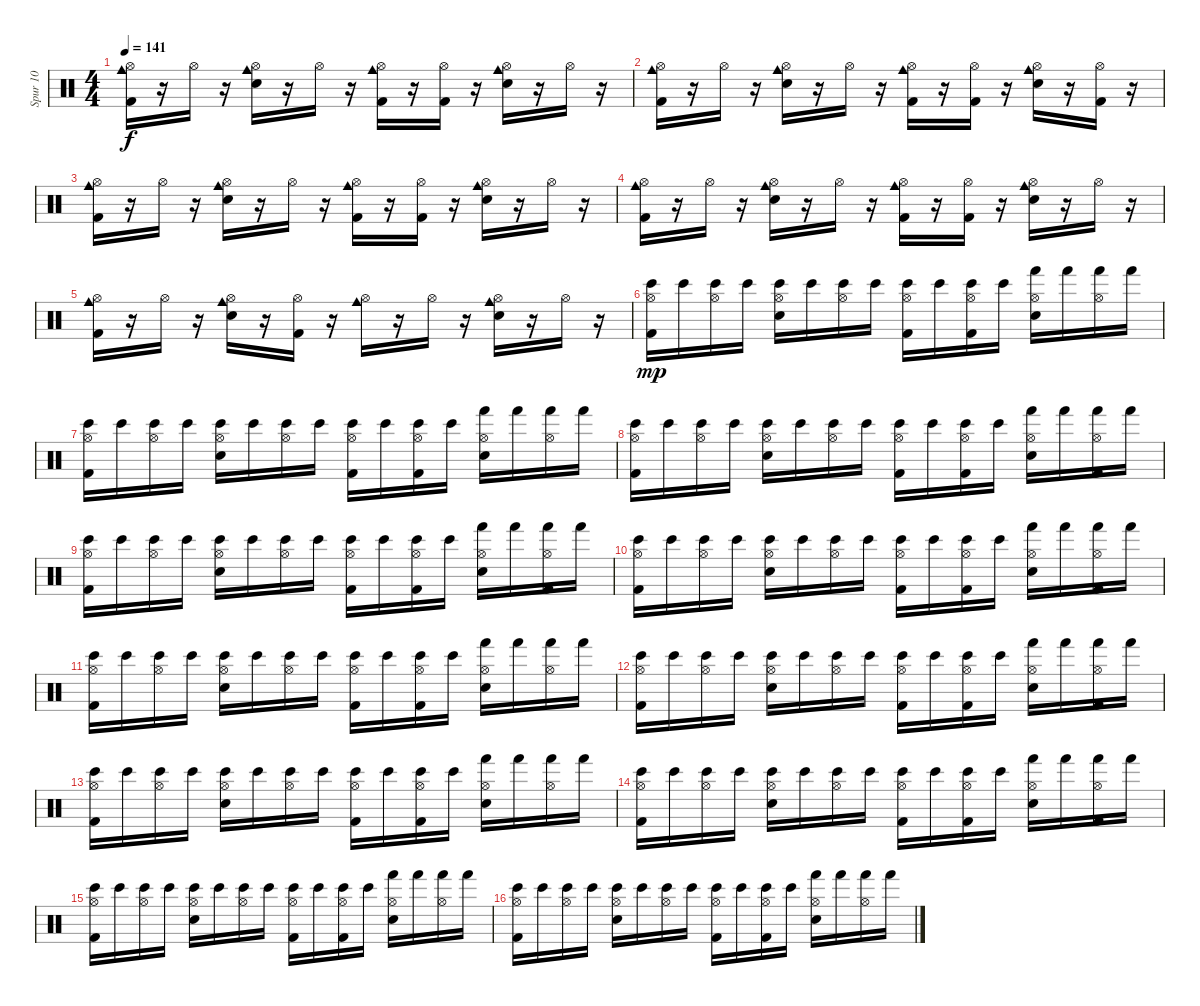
\track ("Spur 10" "Spur 10") {instrument percussion}
\staff {score}
\articulation defaults
\ts (4 4)
\tempo 141
\clef neutral
\ks c
("Cowbell medium (hit)" "Hi-Hat (open)" "Kick (hit) 2").16{dy f} r.16 "Hi-Hat (open)".16 r.16 ("Cowbell medium (hit)" "Hi-Hat (open)" "Snare (hit) 2").16 r.16 "Hi-Hat (open)".16 r.16 ("Cowbell medium (hit)" "Hi-Hat (open)" "Kick (hit) 2").16 r.16 ("Hi-Hat (open)" "Kick (hit) 2").16 r.16 ("Cowbell medium (hit)" "Hi-Hat (open)" "Snare (hit) 2").16 r.16 "Hi-Hat (open)".16 r.16 |
("Cowbell medium (hit)" "Hi-Hat (open)" "Kick (hit) 2").16 r.16 "Hi-Hat (open)".16 r.16 ("Cowbell medium (hit)" "Hi-Hat (open)" "Snare (hit) 2").16 r.16 "Hi-Hat (open)".16 r.16 ("Cowbell medium (hit)" "Hi-Hat (open)" "Kick (hit) 2").16 r.16 ("Hi-Hat (open)" "Kick (hit) 2").16 r.16 ("Cowbell medium (hit)" "Hi-Hat (open)" "Snare (hit) 2").16 r.16 ("Hi-Hat (open)" "Kick (hit) 2").16 r.16 |
("Cowbell medium (hit)" "Hi-Hat (open)" "Kick (hit) 2").16 r.16 "Hi-Hat (open)".16 r.16 ("Cowbell medium (hit)" "Hi-Hat (open)" "Snare (hit) 2").16 r.16 "Hi-Hat (open)".16 r.16 ("Cowbell medium (hit)" "Hi-Hat (open)" "Kick (hit) 2").16 r.16 ("Hi-Hat (open)" "Kick (hit) 2").16 r.16 ("Cowbell medium (hit)" "Hi-Hat (open)" "Snare (hit) 2").16 r.16 "Hi-Hat (open)".16 r.16 |
("Cowbell medium (hit)" "Hi-Hat (open)" "Kick (hit) 2").16 r.16 "Hi-Hat (open)".16 r.16 ("Cowbell medium (hit)" "Hi-Hat (open)" "Snare (hit) 2").16 r.16 "Hi-Hat (open)".16 r.16 ("Cowbell medium (hit)" "Hi-Hat (open)" "Kick (hit) 2").16 r.16 ("Hi-Hat (open)" "Kick (hit) 2").16 r.16 ("Cowbell medium (hit)" "Hi-Hat (open)" "Snare (hit) 2").16 r.16 "Hi-Hat (open)".16 r.16 |
("Cowbell medium (hit)" "Hi-Hat (open)" "Kick (hit) 2").16 r.16 "Hi-Hat (open)".16 r.16 ("Cowbell medium (hit)" "Hi-Hat (open)" "Snare (hit) 2").16 r.16 ("Kick (hit) 2" "Hi-Hat (open)").16 r.16 ("Cowbell medium (hit)" "Hi-Hat (open)").16 r.16 "Hi-Hat (open)".16 r.16 ("Cowbell medium (hit)" "Hi-Hat (open)" "Snare (hit) 2").16 r.16 "Hi-Hat (open)".16 r.16 |
("Bongo High (hit)" "Hi-Hat (open)" "Kick (hit) 2").16{dy mp} "Bongo High (hit)".16 ("Bongo High (hit)" "Hi-Hat (open)").16 "Bongo High (hit)".16 ("Bongo High (hit)" "Hi-Hat (open)" "Snare (hit) 2").16 "Bongo High (hit)".16 ("Bongo High (hit)" "Hi-Hat (open)").16 "Bongo High (hit)".16 ("Bongo High (hit)" "Hi-Hat (open)" "Kick (hit) 2").16 "Bongo High (hit)".16 ("Bongo High (hit)" "Hi-Hat (open)" "Kick (hit) 2").16 "Bongo High (hit)".16 ("Hand (hit)" "Hi-Hat (open)" "Snare (hit) 2").16 "Hand (hit)".16 ("Hand (hit)" "Hi-Hat (open)").16 "Hand (hit)".16 |
("Bongo High (hit)" "Hi-Hat (open)" "Kick (hit) 2").16 "Bongo High (hit)".16 ("Bongo High (hit)" "Hi-Hat (open)").16 "Bongo High (hit)".16 ("Bongo High (hit)" "Hi-Hat (open)" "Snare (hit) 2").16 "Bongo High (hit)".16 ("Bongo High (hit)" "Hi-Hat (open)").16 "Bongo High (hit)".16 ("Bongo High (hit)" "Hi-Hat (open)" "Kick (hit) 2").16 "Bongo High (hit)".16 ("Bongo High (hit)" "Hi-Hat (open)" "Kick (hit) 2").16 "Bongo High (hit)".16 ("Hand (hit)" "Hi-Hat (open)" "Snare (hit) 2").16 "Hand (hit)".16 ("Hand (hit)" "Hi-Hat (open)").16 "Hand (hit)".16 |
("Bongo High (hit)" "Hi-Hat (open)" "Kick (hit) 2").16 "Bongo High (hit)".16 ("Bongo High (hit)" "Hi-Hat (open)").16 "Bongo High (hit)".16 ("Bongo High (hit)" "Hi-Hat (open)" "Snare (hit) 2").16 "Bongo High (hit)".16 ("Bongo High (hit)" "Hi-Hat (open)").16 "Bongo High (hit)".16 ("Bongo High (hit)" "Hi-Hat (open)" "Kick (hit) 2").16 "Bongo High (hit)".16 ("Bongo High (hit)" "Hi-Hat (open)" "Kick (hit) 2").16 "Bongo High (hit)".16 ("Hand (hit)" "Hi-Hat (open)" "Snare (hit) 2").16 "Hand (hit)".16 ("Hand (hit)" "Hi-Hat (open)" "Kick (hit) 2").16 "Hand (hit)".16 |
("Bongo High (hit)" "Hi-Hat (open)" "Kick (hit) 2").16 "Bongo High (hit)".16 ("Bongo High (hit)" "Hi-Hat (open)").16 "Bongo High (hit)".16 ("Bongo High (hit)" "Hi-Hat (open)" "Snare (hit) 2").16 "Bongo High (hit)".16 ("Bongo High (hit)" "Hi-Hat (open)").16 "Bongo High (hit)".16 ("Bongo High (hit)" "Hi-Hat (open)" "Kick (hit) 2").16 "Bongo High (hit)".16 ("Bongo High (hit)" "Hi-Hat (open)" "Kick (hit) 2").16 "Bongo High (hit)".16 ("Hand (hit)" "Hi-Hat (open)" "Snare (hit) 2").16 "Hand (hit)".16 ("Hand (hit)" "Kick (hit) 2" "Hi-Hat (open)").16 "Hand (hit)".16 |
("Bongo High (hit)" "Hi-Hat (open)" "Kick (hit) 2").16 "Bongo High (hit)".16 ("Bongo High (hit)" "Hi-Hat (open)").16 "Bongo High (hit)".16 ("Bongo High (hit)" "Hi-Hat (open)" "Snare (hit) 2").16 "Bongo High (hit)".16 ("Bongo High (hit)" "Hi-Hat (open)").16 "Bongo High (hit)".16 ("Bongo High (hit)" "Hi-Hat (open)" "Kick (hit) 2").16 "Bongo High (hit)".16 ("Bongo High (hit)" "Hi-Hat (open)" "Kick (hit) 2").16 "Bongo High (hit)".16 ("Hand (hit)" "Hi-Hat (open)" "Snare (hit) 2").16 "Hand (hit)".16 ("Hand (hit)" "Hi-Hat (open)" "Kick (hit) 2").16 "Hand (hit)".16 |
("Bongo High (hit)" "Hi-Hat (open)" "Kick (hit) 2").16 "Bongo High (hit)".16 ("Bongo High (hit)" "Hi-Hat (open)").16 "Bongo High (hit)".16 ("Bongo High (hit)" "Hi-Hat (open)" "Snare (hit) 2").16 "Bongo High (hit)".16 ("Bongo High (hit)" "Hi-Hat (open)").16 "Bongo High (hit)".16 ("Bongo High (hit)" "Hi-Hat (open)" "Kick (hit) 2").16 "Bongo High (hit)".16 ("Bongo High (hit)" "Hi-Hat (open)" "Kick (hit) 2").16 "Bongo High (hit)".16 ("Hand (hit)" "Hi-Hat (open)" "Snare (hit) 2").16 "Hand (hit)".16 ("Hand (hit)" "Hi-Hat (open)").16 "Hand (hit)".16 |
("Bongo High (hit)" "Hi-Hat (open)" "Kick (hit) 2").16 "Bongo High (hit)".16 ("Bongo High (hit)" "Hi-Hat (open)").16 "Bongo High (hit)".16 ("Bongo High (hit)" "Hi-Hat (open)" "Snare (hit) 2").16 "Bongo High (hit)".16 ("Bongo High (hit)" "Hi-Hat (open)").16 "Bongo High (hit)".16 ("Bongo High (hit)" "Hi-Hat (open)" "Kick (hit) 2").16 "Bongo High (hit)".16 ("Bongo High (hit)" "Hi-Hat (open)" "Kick (hit) 2").16 "Bongo High (hit)".16 ("Hand (hit)" "Hi-Hat (open)" "Snare (hit) 2").16 "Hand (hit)".16 ("Hand (hit)" "Hi-Hat (open)" "Kick (hit) 2").16 "Hand (hit)".16 |
("Bongo High (hit)" "Hi-Hat (open)" "Kick (hit) 2").16 "Bongo High (hit)".16 ("Bongo High (hit)" "Hi-Hat (open)").16 "Bongo High (hit)".16 ("Bongo High (hit)" "Hi-Hat (open)" "Snare (hit) 2").16 "Bongo High (hit)".16 ("Bongo High (hit)" "Hi-Hat (open)").16 "Bongo High (hit)".16 ("Bongo High (hit)" "Hi-Hat (open)" "Kick (hit) 2").16 "Bongo High (hit)".16 ("Bongo High (hit)" "Hi-Hat (open)" "Kick (hit) 2").16 "Bongo High (hit)".16 ("Hand (hit)" "Hi-Hat (open)" "Snare (hit) 2").16 "Hand (hit)".16 ("Hand (hit)" "Hi-Hat (open)").16 "Hand (hit)".16 |
("Bongo High (hit)" "Hi-Hat (open)" "Kick (hit) 2").16 "Bongo High (hit)".16 ("Bongo High (hit)" "Hi-Hat (open)").16 "Bongo High (hit)".16 ("Bongo High (hit)" "Hi-Hat (open)" "Snare (hit) 2").16 "Bongo High (hit)".16 ("Bongo High (hit)" "Hi-Hat (open)").16 "Bongo High (hit)".16 ("Bongo High (hit)" "Hi-Hat (open)" "Kick (hit) 2").16 "Bongo High (hit)".16 ("Bongo High (hit)" "Hi-Hat (open)" "Kick (hit) 2").16 "Bongo High (hit)".16 ("Hand (hit)" "Hi-Hat (open)" "Snare (hit) 2").16 "Hand (hit)".16 ("Hand (hit)" "Hi-Hat (open)" "Kick (hit) 2").16 "Hand (hit)".16 |
("Bongo High (hit)" "Hi-Hat (open)" "Kick (hit) 2").16 "Bongo High (hit)".16 ("Bongo High (hit)" "Hi-Hat (open)").16 "Bongo High (hit)".16 ("Bongo High (hit)" "Hi-Hat (open)" "Snare (hit) 2").16 "Bongo High (hit)".16 ("Bongo High (hit)" "Hi-Hat (open)").16 "Bongo High (hit)".16 ("Bongo High (hit)" "Hi-Hat (open)" "Kick (hit) 2").16 "Bongo High (hit)".16 ("Bongo High (hit)" "Hi-Hat (open)" "Kick (hit) 2").16 "Bongo High (hit)".16 ("Hand (hit)" "Hi-Hat (open)" "Snare (hit) 2").16 "Hand (hit)".16 ("Hand (hit)" "Hi-Hat (open)").16 "Hand (hit)".16 |
("Bongo High (hit)" "Hi-Hat (open)" "Kick (hit) 2").16 "Bongo High (hit)".16 ("Bongo High (hit)" "Hi-Hat (open)").16 "Bongo High (hit)".16 ("Bongo High (hit)" "Hi-Hat (open)" "Snare (hit) 2").16 "Bongo High (hit)".16 ("Bongo High (hit)" "Hi-Hat (open)").16 "Bongo High (hit)".16 ("Bongo High (hit)" "Hi-Hat (open)" "Kick (hit) 2").16 "Bongo High (hit)".16 ("Bongo High (hit)" "Hi-Hat (open)" "Kick (hit) 2").16 "Bongo High (hit)".16 ("Hand (hit)" "Hi-Hat (open)" "Snare (hit) 2").16 "Hand (hit)".16 ("Hand (hit)" "Hi-Hat (open)").16 "Hand (hit)".16
